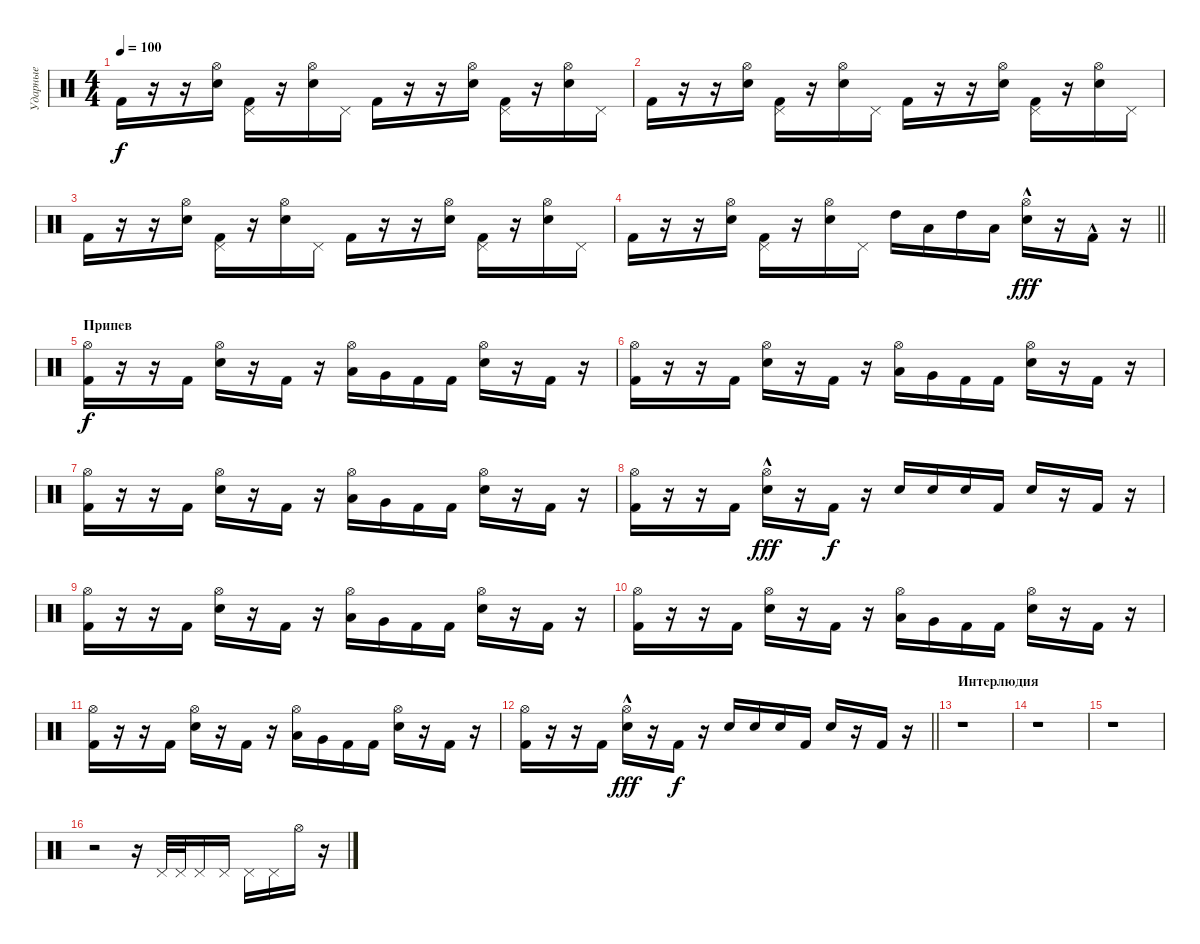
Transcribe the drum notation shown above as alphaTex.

\track ("Ударные" "Ударные") {instrument percussion}
\staff {score}
\articulation defaults
\ts (4 4)
\tempo 100
\clef neutral
\ks c "Kick (hit) 2".16{dy f}
r.16 r.16 ("Electric Snare (hit)" "Hi-Hat (open)").16 ("Kick (hit) 2" "Pedal Hi-Hat (hit)").16 r.16 ("Electric Snare (hit)" "Hi-Hat (open)").16 "Pedal Hi-Hat (hit)".16 "Kick (hit) 2".16 r.16 r.16 ("Electric Snare (hit)" "Hi-Hat (open)").16 ("Kick (hit) 2" "Pedal Hi-Hat (hit)").16 r.16 ("Electric Snare (hit)" "Hi-Hat (open)").16 "Pedal Hi-Hat (hit)".16 |
"Kick (hit) 2".16 r.16 r.16 ("Electric Snare (hit)" "Hi-Hat (open)").16 ("Kick (hit) 2" "Pedal Hi-Hat (hit)").16 r.16 ("Electric Snare (hit)" "Hi-Hat (open)").16 "Pedal Hi-Hat (hit)".16 "Kick (hit) 2".16 r.16 r.16 ("Electric Snare (hit)" "Hi-Hat (open)").16 ("Kick (hit) 2" "Pedal Hi-Hat (hit)").16 r.16 ("Electric Snare (hit)" "Hi-Hat (open)").16 "Pedal Hi-Hat (hit)".16 |
"Kick (hit) 2".16 r.16 r.16 ("Electric Snare (hit)" "Hi-Hat (open)").16 ("Kick (hit) 2" "Pedal Hi-Hat (hit)").16 r.16 ("Electric Snare (hit)" "Hi-Hat (open)").16 "Pedal Hi-Hat (hit)".16 "Kick (hit) 2".16 r.16 r.16 ("Electric Snare (hit)" "Hi-Hat (open)").16 ("Kick (hit) 2" "Pedal Hi-Hat (hit)").16 r.16 ("Electric Snare (hit)" "Hi-Hat (open)").16 "Pedal Hi-Hat (hit)".16 |
\barLineRight lightlight "Kick (hit) 2".16
r.16 r.16 ("Electric Snare (hit)" "Hi-Hat (open)").16 ("Kick (hit) 2" "Pedal Hi-Hat (hit)").16 r.16 ("Electric Snare (hit)" "Hi-Hat (open)").16 "Pedal Hi-Hat (hit)".16 "High Tom (hit)".16 "Low Tom (hit)".16 "High Tom (hit)".16 "Low Tom (hit)".16 ("Electric Snare (hit)"{hac} "Hi-Hat (open)").16{dy fff} r.16 "Kick (hit) 2"{hac}.16 r.16 |
\section ("" "Припев")
("Kick (hit) 2" "Hi-Hat (open)").16{dy f} r.16 r.16 "Kick (hit) 2".16 ("Electric Snare (hit)" "Hi-Hat (open)").16 r.16 "Kick (hit) 2".16 r.16 ("Low Tom (hit)" "Hi-Hat (open)").16 "Very Low Tom (hit)".16 "Kick (hit) 2".16 "Kick (hit) 2".16 ("Electric Snare (hit)" "Hi-Hat (open)").16 r.16 "Kick (hit) 2".16 r.16 |
("Kick (hit) 2" "Hi-Hat (open)").16 r.16 r.16 "Kick (hit) 2".16 ("Electric Snare (hit)" "Hi-Hat (open)").16 r.16 "Kick (hit) 2".16 r.16 ("Low Tom (hit)" "Hi-Hat (open)").16 "Very Low Tom (hit)".16 "Kick (hit) 2".16 "Kick (hit) 2".16 ("Electric Snare (hit)" "Hi-Hat (open)").16 r.16 "Kick (hit) 2".16 r.16 |
("Kick (hit) 2" "Hi-Hat (open)").16 r.16 r.16 "Kick (hit) 2".16 ("Electric Snare (hit)" "Hi-Hat (open)").16 r.16 "Kick (hit) 2".16 r.16 ("Low Tom (hit)" "Hi-Hat (open)").16 "Very Low Tom (hit)".16 "Kick (hit) 2".16 "Kick (hit) 2".16 ("Electric Snare (hit)" "Hi-Hat (open)").16 r.16 "Kick (hit) 2".16 r.16 |
("Kick (hit) 2" "Hi-Hat (open)").16 r.16 r.16 "Kick (hit) 2".16 ("Electric Snare (hit)"{hac} "Hi-Hat (open)").16{dy fff} r.16 "Kick (hit) 2".16{dy f} r.16 "Electric Snare (hit)".16 "Electric Snare (hit)".16 "Electric Snare (hit)".16 "Kick (hit) 2".16 "Electric Snare (hit)".16 r.16 "Kick (hit) 2".16 r.16 |
("Kick (hit) 2" "Hi-Hat (open)").16 r.16 r.16 "Kick (hit) 2".16 ("Electric Snare (hit)" "Hi-Hat (open)").16 r.16 "Kick (hit) 2".16 r.16 ("Low Tom (hit)" "Hi-Hat (open)").16 "Very Low Tom (hit)".16 "Kick (hit) 2".16 "Kick (hit) 2".16 ("Electric Snare (hit)" "Hi-Hat (open)").16 r.16 "Kick (hit) 2".16 r.16 |
("Kick (hit) 2" "Hi-Hat (open)").16 r.16 r.16 "Kick (hit) 2".16 ("Electric Snare (hit)" "Hi-Hat (open)").16 r.16 "Kick (hit) 2".16 r.16 ("Low Tom (hit)" "Hi-Hat (open)").16 "Very Low Tom (hit)".16 "Kick (hit) 2".16 "Kick (hit) 2".16 ("Electric Snare (hit)" "Hi-Hat (open)").16 r.16 "Kick (hit) 2".16 r.16 |
("Kick (hit) 2" "Hi-Hat (open)").16 r.16 r.16 "Kick (hit) 2".16 ("Electric Snare (hit)" "Hi-Hat (open)").16 r.16 "Kick (hit) 2".16 r.16 ("Low Tom (hit)" "Hi-Hat (open)").16 "Very Low Tom (hit)".16 "Kick (hit) 2".16 "Kick (hit) 2".16 ("Electric Snare (hit)" "Hi-Hat (open)").16 r.16 "Kick (hit) 2".16 r.16 |
\barLineRight lightlight
("Kick (hit) 2" "Hi-Hat (open)").16 r.16 r.16 "Kick (hit) 2".16 ("Electric Snare (hit)"{hac} "Hi-Hat (open)").16{dy fff} r.16 "Kick (hit) 2".16{dy f} r.16 "Electric Snare (hit)".16 "Electric Snare (hit)".16 "Electric Snare (hit)".16 "Kick (hit) 2".16 "Electric Snare (hit)".16 r.16 "Kick (hit) 2".16 r.16 |
\section ("" "Интерлюдия")
r.1 |
r.1 |
r.1 |
r.2 r.16 "Pedal Hi-Hat (hit)".32 "Pedal Hi-Hat (hit)".32 "Pedal Hi-Hat (hit)".16 "Pedal Hi-Hat (hit)".16 "Pedal Hi-Hat (hit)".16 "Pedal Hi-Hat (hit)".16 "Hi-Hat (open)".16 r.16
